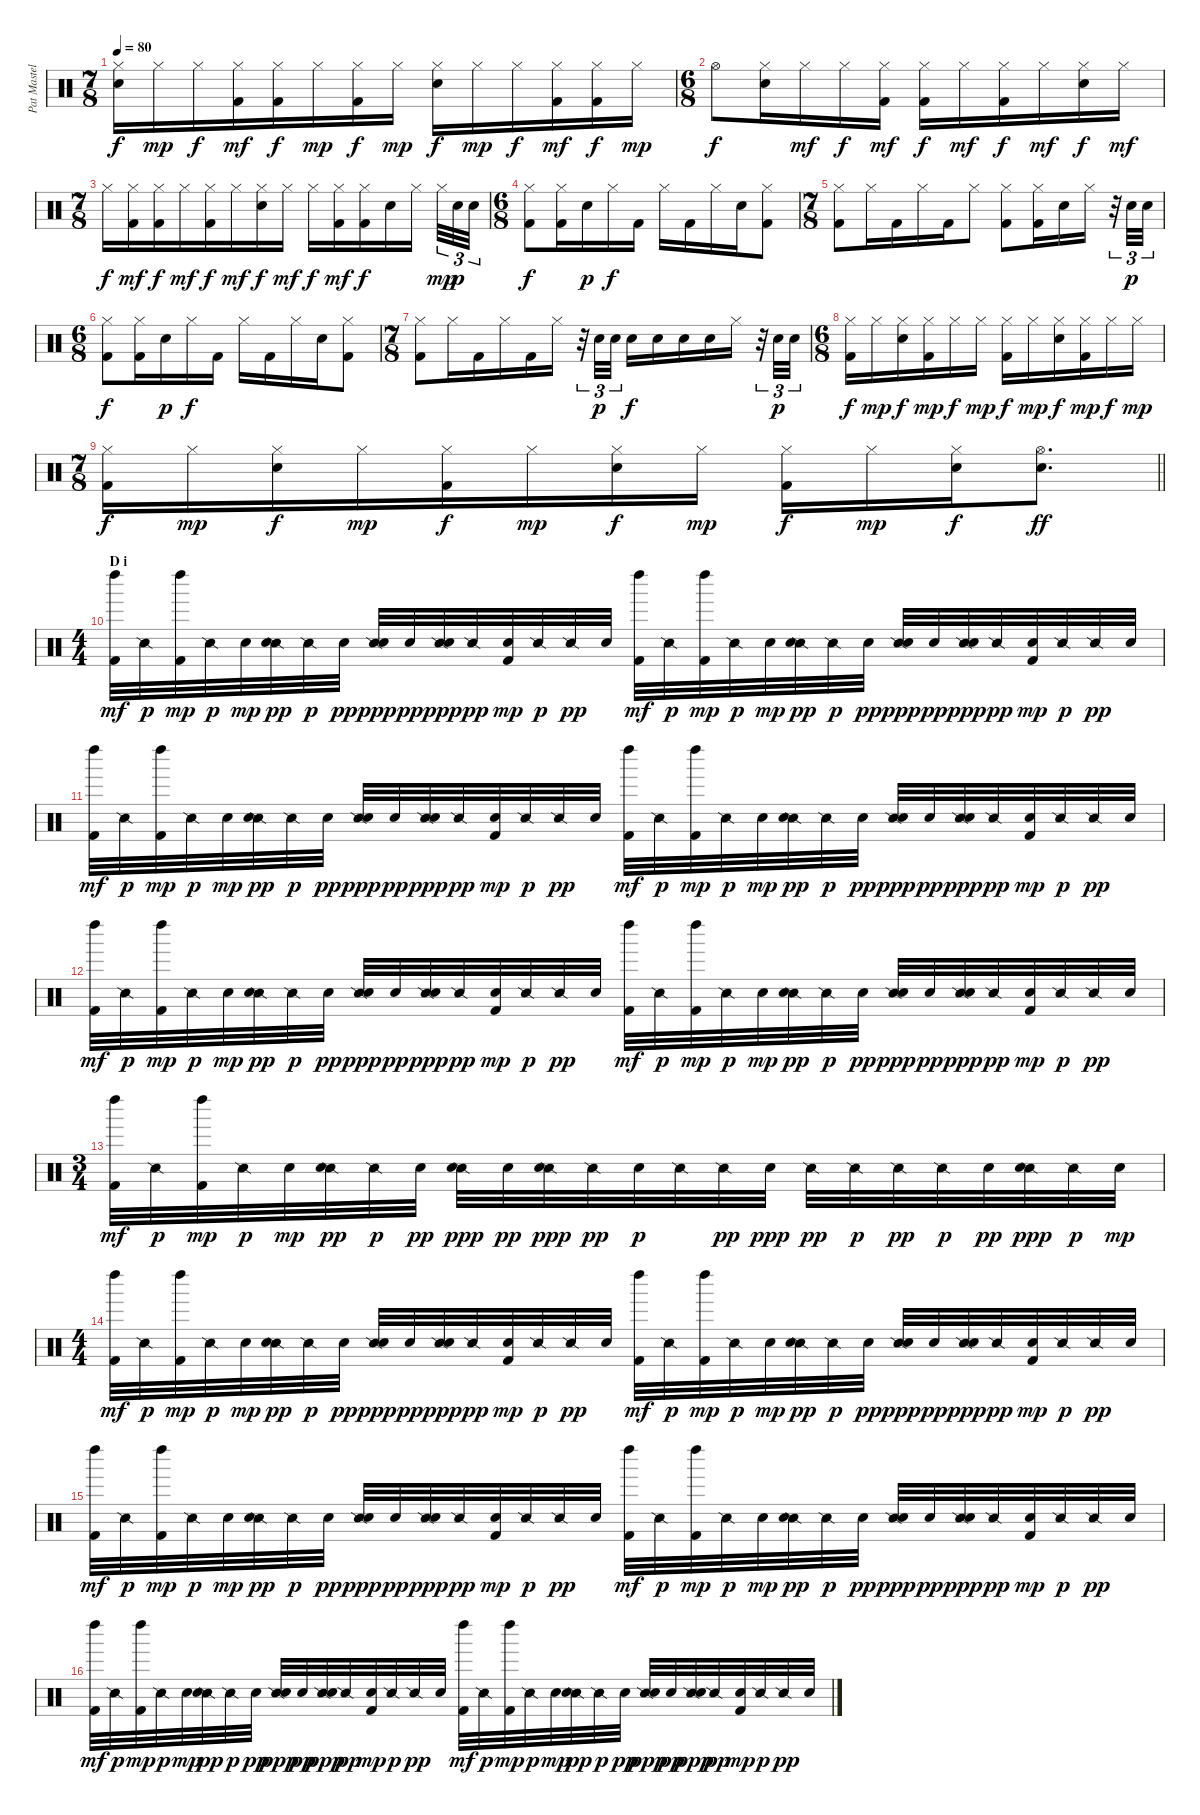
\track ("Pat Mastelotto (Traps / Buttons)" "Pat Mastel") {instrument percussion}
\staff {score}
\articulation defaults
\ts (7 8)
\tempo 80
\clef neutral
\ks c
("Hi-Hat (closed)" "Electric Snare (hit)").16{dy f} "Hi-Hat (closed)".16{dy mp} "Hi-Hat (closed)".16{dy f} ("Hi-Hat (closed)" "Kick (hit) 2").16{dy mf} ("Hi-Hat (closed)" "Kick (hit) 2").16{dy f} "Hi-Hat (closed)".16{dy mp} ("Hi-Hat (closed)" "Kick (hit) 2").16{dy f} "Hi-Hat (closed)".16{dy mp} ("Hi-Hat (closed)" "Electric Snare (hit)").16{dy f} "Hi-Hat (closed)".16{dy mp} "Hi-Hat (closed)".16{dy f} ("Hi-Hat (closed)" "Kick (hit) 2").16{dy mf} ("Hi-Hat (closed)" "Kick (hit) 2").16{dy f} "Hi-Hat (closed)".16{dy mp} |
\ts (6 8)
"Hi-Hat (open)".8{dy f} ("Hi-Hat (closed)" "Electric Snare (hit)").16 "Hi-Hat (closed)".16{dy mf} "Hi-Hat (closed)".16{dy f} ("Hi-Hat (closed)" "Kick (hit) 2").16{dy mf} ("Hi-Hat (closed)" "Kick (hit) 2").16{dy f} "Hi-Hat (closed)".16{dy mf} ("Hi-Hat (closed)" "Kick (hit) 2").16{dy f} "Hi-Hat (closed)".16{dy mf} ("Hi-Hat (closed)" "Electric Snare (hit)").16{dy f} "Hi-Hat (closed)".16{dy mf} |
\ts (7 8)
"Hi-Hat (closed)".16{dy f} ("Hi-Hat (closed)" "Kick (hit) 2").16{dy mf} ("Hi-Hat (closed)" "Kick (hit) 2").16{dy f} "Hi-Hat (closed)".16{dy mf} ("Hi-Hat (closed)" "Kick (hit) 2").16{dy f} "Hi-Hat (closed)".16{dy mf} ("Hi-Hat (closed)" "Electric Snare (hit)").16{dy f} "Hi-Hat (closed)".16{dy mf} "Hi-Hat (closed)".16{dy f} ("Hi-Hat (closed)" "Kick (hit) 2").16{dy mf} ("Hi-Hat (closed)" "Kick (hit) 2").16{dy f} "Electric Snare (hit)".16 "Hi-Hat (closed)".16{beam splitsecondary} "Hi-Hat (closed)".32{tu (3 2) dy mp} "Electric Snare (hit)".32{tu (3 2) dy p} "Electric Snare (hit)".32{tu (3 2)} |
\ts (6 8)
("Hi-Hat (closed)" "Kick (hit) 2").8{dy f} ("Hi-Hat (closed)" "Kick (hit) 2").16 "Electric Snare (hit)".16{dy p} "Hi-Hat (closed)".16{dy f} "Kick (hit) 2".16 "Hi-Hat (closed)".16 "Kick (hit) 2".16 "Hi-Hat (closed)".16 "Electric Snare (hit)".16 ("Hi-Hat (closed)" "Kick (hit) 2").8 |
\ts (7 8)
("Hi-Hat (closed)" "Kick (hit) 2").8 "Hi-Hat (closed)".16 "Kick (hit) 2".16 "Hi-Hat (closed)".16 "Kick (hit) 2".16 "Hi-Hat (closed)".8 ("Hi-Hat (closed)" "Kick (hit) 2").8 ("Hi-Hat (closed)" "Kick (hit) 2").16 "Electric Snare (hit)".16 "Hi-Hat (closed)".16 r.32{tu (3 2)} "Electric Snare (hit)".32{tu (3 2) dy p} "Electric Snare (hit)".32{tu (3 2)} |
\ts (6 8)
("Hi-Hat (closed)" "Kick (hit) 2").8{dy f} ("Hi-Hat (closed)" "Kick (hit) 2").16 "Electric Snare (hit)".16{dy p} "Hi-Hat (closed)".16{dy f} "Kick (hit) 2".16 "Hi-Hat (closed)".16 "Kick (hit) 2".16 "Hi-Hat (closed)".16 "Electric Snare (hit)".16 ("Hi-Hat (closed)" "Kick (hit) 2").8 |
\ts (7 8)
("Hi-Hat (closed)" "Kick (hit) 2").8 "Hi-Hat (closed)".16 "Kick (hit) 2".16 "Hi-Hat (closed)".16 "Kick (hit) 2".16 "Hi-Hat (closed)".16 r.32{tu (3 2)} "Electric Snare (hit)".32{tu (3 2) dy p} "Electric Snare (hit)".32{tu (3 2)} "Electric Snare (hit)".16{dy f} "Electric Snare (hit)".16 "Electric Snare (hit)".16 "Electric Snare (hit)".16 "Hi-Hat (closed)".16 r.32{tu (3 2)} "Electric Snare (hit)".32{tu (3 2) dy p} "Electric Snare (hit)".32{tu (3 2)} |
\ts (6 8)
("Hi-Hat (closed)" "Kick (hit) 2").16{dy f} "Hi-Hat (closed)".16{dy mp} ("Hi-Hat (closed)" "Electric Snare (hit)").16{dy f} ("Hi-Hat (closed)" "Kick (hit) 2").16{dy mp} "Hi-Hat (closed)".16{dy f} "Hi-Hat (closed)".16{dy mp} ("Hi-Hat (closed)" "Kick (hit) 2").16{dy f} "Hi-Hat (closed)".16{dy mp} ("Hi-Hat (closed)" "Electric Snare (hit)").16{dy f} ("Hi-Hat (closed)" "Kick (hit) 2").16{dy mp} "Hi-Hat (closed)".16{dy f} "Hi-Hat (closed)".16{dy mp} |
\ts (7 8)
\barLineRight lightlight
("Hi-Hat (closed)" "Kick (hit) 2").16{dy f} "Hi-Hat (closed)".16{dy mp} ("Hi-Hat (closed)" "Electric Snare (hit)").16{dy f} "Hi-Hat (closed)".16{dy mp} ("Hi-Hat (closed)" "Kick (hit) 2").16{dy f} "Hi-Hat (closed)".16{dy mp} ("Hi-Hat (closed)" "Electric Snare (hit)").16{dy f} "Hi-Hat (closed)".16{dy mp} ("Hi-Hat (closed)" "Kick (hit) 2").16{dy f} "Hi-Hat (closed)".16{dy mp} ("Hi-Hat (closed)" "Electric Snare (hit)").16{dy f} ("Hi-Hat (open)" "Electric Snare (hit)").8{d dy ff} |
\ts (4 4)
\section ("" "D i")
("Left Maraca (hit)" "Kick (hit) 2").32{dy mf} "Snare (side stick) 2".32{dy p} ("Left Maraca (hit)" "Kick (hit) 2").32{dy mp} "Snare (side stick) 2".32{dy p} "Electric Snare (hit)".32{dy mp} ("Snare (side stick) 2" "Electric Snare (hit)").32{dy pp} "Snare (side stick) 2".32{dy p} "Electric Snare (hit)".32{dy pp} ("Snare (side stick) 2" "Electric Snare (hit)").32{dy ppp} "Electric Snare (hit)".32{dy pp} ("Snare (side stick) 2" "Electric Snare (hit)").32{dy ppp} "Snare (side stick) 2".32{dy pp} ("Electric Snare (hit)" "Kick (hit) 2").32{dy mp} "Snare (side stick) 2".32{dy p} "Snare (side stick) 2".32{dy pp} "Electric Snare (hit)".32 ("Left Maraca (hit)" "Kick (hit) 2").32{dy mf} "Snare (side stick) 2".32{dy p} ("Left Maraca (hit)" "Kick (hit) 2").32{dy mp} "Snare (side stick) 2".32{dy p} "Electric Snare (hit)".32{dy mp} ("Snare (side stick) 2" "Electric Snare (hit)").32{dy pp} "Snare (side stick) 2".32{dy p} "Electric Snare (hit)".32{dy pp} ("Snare (side stick) 2" "Electric Snare (hit)").32{dy ppp} "Electric Snare (hit)".32{dy pp} ("Snare (side stick) 2" "Electric Snare (hit)").32{dy ppp} "Snare (side stick) 2".32{dy pp} ("Electric Snare (hit)" "Kick (hit) 2").32{dy mp} "Snare (side stick) 2".32{dy p} "Snare (side stick) 2".32{dy pp} "Electric Snare (hit)".32 |
("Left Maraca (hit)" "Kick (hit) 2").32{dy mf} "Snare (side stick) 2".32{dy p} ("Left Maraca (hit)" "Kick (hit) 2").32{dy mp} "Snare (side stick) 2".32{dy p} "Electric Snare (hit)".32{dy mp} ("Snare (side stick) 2" "Electric Snare (hit)").32{dy pp} "Snare (side stick) 2".32{dy p} "Electric Snare (hit)".32{dy pp} ("Snare (side stick) 2" "Electric Snare (hit)").32{dy ppp} "Electric Snare (hit)".32{dy pp} ("Snare (side stick) 2" "Electric Snare (hit)").32{dy ppp} "Snare (side stick) 2".32{dy pp} ("Electric Snare (hit)" "Kick (hit) 2").32{dy mp} "Snare (side stick) 2".32{dy p} "Snare (side stick) 2".32{dy pp} "Electric Snare (hit)".32 ("Left Maraca (hit)" "Kick (hit) 2").32{dy mf} "Snare (side stick) 2".32{dy p} ("Left Maraca (hit)" "Kick (hit) 2").32{dy mp} "Snare (side stick) 2".32{dy p} "Electric Snare (hit)".32{dy mp} ("Snare (side stick) 2" "Electric Snare (hit)").32{dy pp} "Snare (side stick) 2".32{dy p} "Electric Snare (hit)".32{dy pp} ("Snare (side stick) 2" "Electric Snare (hit)").32{dy ppp} "Electric Snare (hit)".32{dy pp} ("Snare (side stick) 2" "Electric Snare (hit)").32{dy ppp} "Snare (side stick) 2".32{dy pp} ("Electric Snare (hit)" "Kick (hit) 2").32{dy mp} "Snare (side stick) 2".32{dy p} "Snare (side stick) 2".32{dy pp} "Electric Snare (hit)".32 |
("Left Maraca (hit)" "Kick (hit) 2").32{dy mf} "Snare (side stick) 2".32{dy p} ("Left Maraca (hit)" "Kick (hit) 2").32{dy mp} "Snare (side stick) 2".32{dy p} "Electric Snare (hit)".32{dy mp} ("Snare (side stick) 2" "Electric Snare (hit)").32{dy pp} "Snare (side stick) 2".32{dy p} "Electric Snare (hit)".32{dy pp} ("Snare (side stick) 2" "Electric Snare (hit)").32{dy ppp} "Electric Snare (hit)".32{dy pp} ("Snare (side stick) 2" "Electric Snare (hit)").32{dy ppp} "Snare (side stick) 2".32{dy pp} ("Electric Snare (hit)" "Kick (hit) 2").32{dy mp} "Snare (side stick) 2".32{dy p} "Snare (side stick) 2".32{dy pp} "Electric Snare (hit)".32 ("Left Maraca (hit)" "Kick (hit) 2").32{dy mf} "Snare (side stick) 2".32{dy p} ("Left Maraca (hit)" "Kick (hit) 2").32{dy mp} "Snare (side stick) 2".32{dy p} "Electric Snare (hit)".32{dy mp} ("Snare (side stick) 2" "Electric Snare (hit)").32{dy pp} "Snare (side stick) 2".32{dy p} "Electric Snare (hit)".32{dy pp} ("Snare (side stick) 2" "Electric Snare (hit)").32{dy ppp} "Electric Snare (hit)".32{dy pp} ("Snare (side stick) 2" "Electric Snare (hit)").32{dy ppp} "Snare (side stick) 2".32{dy pp} ("Electric Snare (hit)" "Kick (hit) 2").32{dy mp} "Snare (side stick) 2".32{dy p} "Snare (side stick) 2".32{dy pp} "Electric Snare (hit)".32 |
\ts (3 4)
("Left Maraca (hit)" "Kick (hit) 2").32{dy mf volume 4} "Snare (side stick) 2".32{dy p} ("Left Maraca (hit)" "Kick (hit) 2").32{dy mp} "Snare (side stick) 2".32{dy p} "Electric Snare (hit)".32{dy mp} ("Snare (side stick) 2" "Electric Snare (hit)").32{dy pp} "Snare (side stick) 2".32{dy p} "Electric Snare (hit)".32{dy pp} ("Snare (side stick) 2" "Electric Snare (hit)").32{dy ppp} "Electric Snare (hit)".32{dy pp} ("Snare (side stick) 2" "Electric Snare (hit)").32{dy ppp} "Snare (side stick) 2".32{dy pp} "Electric Snare (hit)".32{dy p} "Snare (side stick) 2".32 "Snare (side stick) 2".32{dy pp} "Electric Snare (hit)".32{dy ppp} "Snare (side stick) 2".32{dy pp} "Snare (side stick) 2".32{dy p} "Snare (side stick) 2".32{dy pp} "Snare (side stick) 2".32{dy p} "Electric Snare (hit)".32{dy pp} ("Snare (side stick) 2" "Electric Snare (hit)").32{dy ppp} "Snare (side stick) 2".32{dy p} "Electric Snare (hit)".32{dy mp} |
\ts (4 4)
("Left Maraca (hit)" "Kick (hit) 2").32{dy mf volume 11} "Snare (side stick) 2".32{dy p} ("Left Maraca (hit)" "Kick (hit) 2").32{dy mp} "Snare (side stick) 2".32{dy p} "Electric Snare (hit)".32{dy mp} ("Snare (side stick) 2" "Electric Snare (hit)").32{dy pp} "Snare (side stick) 2".32{dy p} "Electric Snare (hit)".32{dy pp} ("Snare (side stick) 2" "Electric Snare (hit)").32{dy ppp} "Electric Snare (hit)".32{dy pp} ("Snare (side stick) 2" "Electric Snare (hit)").32{dy ppp} "Snare (side stick) 2".32{dy pp} ("Electric Snare (hit)" "Kick (hit) 2").32{dy mp} "Snare (side stick) 2".32{dy p} "Snare (side stick) 2".32{dy pp} "Electric Snare (hit)".32 ("Left Maraca (hit)" "Kick (hit) 2").32{dy mf} "Snare (side stick) 2".32{dy p} ("Left Maraca (hit)" "Kick (hit) 2").32{dy mp} "Snare (side stick) 2".32{dy p} "Electric Snare (hit)".32{dy mp} ("Snare (side stick) 2" "Electric Snare (hit)").32{dy pp} "Snare (side stick) 2".32{dy p} "Electric Snare (hit)".32{dy pp} ("Snare (side stick) 2" "Electric Snare (hit)").32{dy ppp} "Electric Snare (hit)".32{dy pp} ("Snare (side stick) 2" "Electric Snare (hit)").32{dy ppp} "Snare (side stick) 2".32{dy pp} ("Electric Snare (hit)" "Kick (hit) 2").32{dy mp} "Snare (side stick) 2".32{dy p} "Snare (side stick) 2".32{dy pp} "Electric Snare (hit)".32 |
("Left Maraca (hit)" "Kick (hit) 2").32{dy mf} "Snare (side stick) 2".32{dy p} ("Left Maraca (hit)" "Kick (hit) 2").32{dy mp} "Snare (side stick) 2".32{dy p} "Electric Snare (hit)".32{dy mp} ("Snare (side stick) 2" "Electric Snare (hit)").32{dy pp} "Snare (side stick) 2".32{dy p} "Electric Snare (hit)".32{dy pp} ("Snare (side stick) 2" "Electric Snare (hit)").32{dy ppp} "Electric Snare (hit)".32{dy pp} ("Snare (side stick) 2" "Electric Snare (hit)").32{dy ppp} "Snare (side stick) 2".32{dy pp} ("Electric Snare (hit)" "Kick (hit) 2").32{dy mp} "Snare (side stick) 2".32{dy p} "Snare (side stick) 2".32{dy pp} "Electric Snare (hit)".32 ("Left Maraca (hit)" "Kick (hit) 2").32{dy mf} "Snare (side stick) 2".32{dy p} ("Left Maraca (hit)" "Kick (hit) 2").32{dy mp} "Snare (side stick) 2".32{dy p} "Electric Snare (hit)".32{dy mp} ("Snare (side stick) 2" "Electric Snare (hit)").32{dy pp} "Snare (side stick) 2".32{dy p} "Electric Snare (hit)".32{dy pp} ("Snare (side stick) 2" "Electric Snare (hit)").32{dy ppp} "Electric Snare (hit)".32{dy pp} ("Snare (side stick) 2" "Electric Snare (hit)").32{dy ppp} "Snare (side stick) 2".32{dy pp} ("Electric Snare (hit)" "Kick (hit) 2").32{dy mp} "Snare (side stick) 2".32{dy p} "Snare (side stick) 2".32{dy pp} "Electric Snare (hit)".32 |
("Left Maraca (hit)" "Kick (hit) 2").32{dy mf} "Snare (side stick) 2".32{dy p} ("Left Maraca (hit)" "Kick (hit) 2").32{dy mp} "Snare (side stick) 2".32{dy p} "Electric Snare (hit)".32{dy mp} ("Snare (side stick) 2" "Electric Snare (hit)").32{dy pp} "Snare (side stick) 2".32{dy p} "Electric Snare (hit)".32{dy pp} ("Snare (side stick) 2" "Electric Snare (hit)").32{dy ppp} "Electric Snare (hit)".32{dy pp} ("Snare (side stick) 2" "Electric Snare (hit)").32{dy ppp} "Snare (side stick) 2".32{dy pp} ("Electric Snare (hit)" "Kick (hit) 2").32{dy mp} "Snare (side stick) 2".32{dy p} "Snare (side stick) 2".32{dy pp} "Electric Snare (hit)".32 ("Left Maraca (hit)" "Kick (hit) 2").32{dy mf} "Snare (side stick) 2".32{dy p} ("Left Maraca (hit)" "Kick (hit) 2").32{dy mp} "Snare (side stick) 2".32{dy p} "Electric Snare (hit)".32{dy mp} ("Snare (side stick) 2" "Electric Snare (hit)").32{dy pp} "Snare (side stick) 2".32{dy p} "Electric Snare (hit)".32{dy pp} ("Snare (side stick) 2" "Electric Snare (hit)").32{dy ppp} "Electric Snare (hit)".32{dy pp} ("Snare (side stick) 2" "Electric Snare (hit)").32{dy ppp} "Snare (side stick) 2".32{dy pp} ("Electric Snare (hit)" "Kick (hit) 2").32{dy mp} "Snare (side stick) 2".32{dy p} "Snare (side stick) 2".32{dy pp} "Electric Snare (hit)".32
